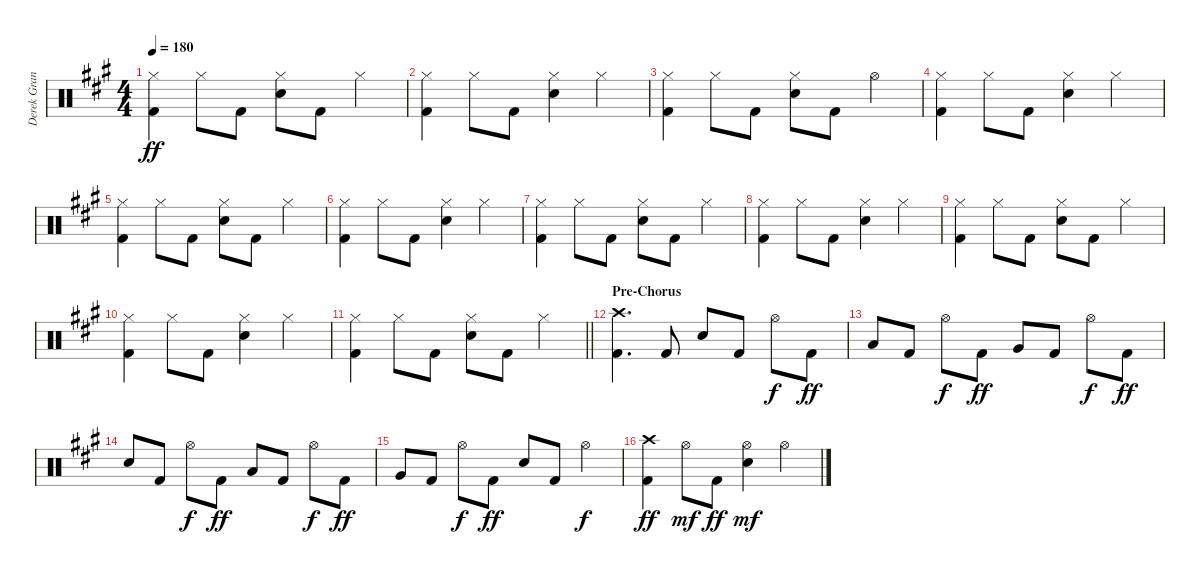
\track ("Derek Grant - Drums" "Derek Gran") {instrument percussion}
\staff {score}
\articulation defaults
\ts (4 4)
\tempo 180
\clef neutral
\ks a
("Hi-Hat (closed)" "Kick (hit) 2").4{dy ff} "Hi-Hat (closed)".8 "Kick (hit) 2".8 ("Snare (hit) 2" "Hi-Hat (closed)").8 "Kick (hit) 2".8 "Hi-Hat (closed)".4 |
("Hi-Hat (closed)" "Kick (hit) 2").4 "Hi-Hat (closed)".8 "Kick (hit) 2".8 ("Snare (hit) 2" "Hi-Hat (closed)").4 "Hi-Hat (closed)".4 |
("Hi-Hat (closed)" "Kick (hit) 2").4 "Hi-Hat (closed)".8 "Kick (hit) 2".8 ("Snare (hit) 2" "Hi-Hat (closed)").8 "Kick (hit) 2".8 "Hi-Hat (open)".4 |
("Hi-Hat (closed)" "Kick (hit) 2").4 "Hi-Hat (closed)".8 "Kick (hit) 2".8 ("Snare (hit) 2" "Hi-Hat (closed)").4 "Hi-Hat (closed)".4 |
("Hi-Hat (closed)" "Kick (hit) 2").4 "Hi-Hat (closed)".8 "Kick (hit) 2".8 ("Snare (hit) 2" "Hi-Hat (closed)").8 "Kick (hit) 2".8 "Hi-Hat (closed)".4 |
("Hi-Hat (closed)" "Kick (hit) 2").4 "Hi-Hat (closed)".8 "Kick (hit) 2".8 ("Snare (hit) 2" "Hi-Hat (closed)").4 "Hi-Hat (closed)".4 |
("Hi-Hat (closed)" "Kick (hit) 2").4 "Hi-Hat (closed)".8 "Kick (hit) 2".8 ("Snare (hit) 2" "Hi-Hat (closed)").8 "Kick (hit) 2".8 "Hi-Hat (closed)".4 |
("Hi-Hat (closed)" "Kick (hit) 2").4 "Hi-Hat (closed)".8 "Kick (hit) 2".8 ("Snare (hit) 2" "Hi-Hat (closed)").4 "Hi-Hat (closed)".4 |
("Hi-Hat (closed)" "Kick (hit) 2").4 "Hi-Hat (closed)".8 "Kick (hit) 2".8 ("Snare (hit) 2" "Hi-Hat (closed)").8 "Kick (hit) 2".8 "Hi-Hat (closed)".4 |
("Hi-Hat (closed)" "Kick (hit) 2").4 "Hi-Hat (closed)".8 "Kick (hit) 2".8 ("Snare (hit) 2" "Hi-Hat (closed)").4 "Hi-Hat (closed)".4 |
\barLineRight lightlight
("Hi-Hat (closed)" "Kick (hit) 2").4 "Hi-Hat (closed)".8 "Kick (hit) 2".8 ("Snare (hit) 2" "Hi-Hat (closed)").8 "Kick (hit) 2".8 "Hi-Hat (closed)".4 |
\section ("" "Pre-Chorus")
("Crash high (hit)" "Kick (hit) 2").4{d} "Kick (hit) 2".8 "Snare (hit) 2".8 "Kick (hit) 2".8 "Hi-Hat (open)".8{dy f} "Kick (hit) 2".8{dy ff} |
"Low Tom (hit)".8 "Kick (hit) 2".8 "Hi-Hat (open)".8{dy f} "Kick (hit) 2".8{dy ff} "Very Low Tom (hit)".8 "Kick (hit) 2".8 "Hi-Hat (open)".8{dy f} "Kick (hit) 2".8{dy ff} |
"Snare (hit) 2".8 "Kick (hit) 2".8 "Hi-Hat (open)".8{dy f} "Kick (hit) 2".8{dy ff} "Low Tom (hit)".8 "Kick (hit) 2".8 "Hi-Hat (open)".8{dy f} "Kick (hit) 2".8{dy ff} |
"Very Low Tom (hit)".8 "Kick (hit) 2".8 "Hi-Hat (open)".8{dy f} "Kick (hit) 2".8{dy ff} "Snare (hit) 2".8 "Kick (hit) 2".8 "Hi-Hat (open)".4{dy f} |
("Crash high (hit)" "Kick (hit) 2").4{dy ff} "Hi-Hat (open)".8{dy mf} "Kick (hit) 2".8{dy ff} ("Snare (hit) 2" "Hi-Hat (open)").4{dy mf} "Hi-Hat (open)".4
